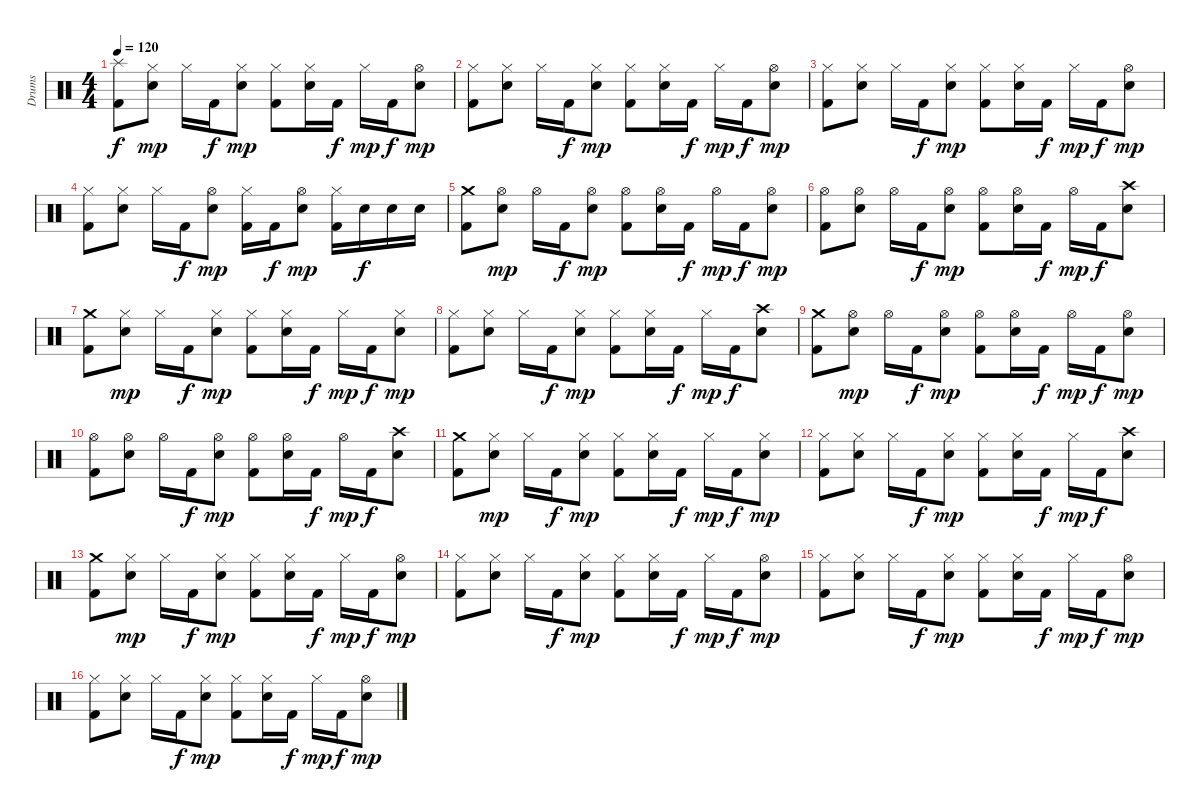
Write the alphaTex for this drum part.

\track ("Drums" "Drums") {instrument percussion}
\staff {score}
\articulation defaults
\ts (4 4)
\tempo 120
\clef neutral
\ks c
("Splash (hit)" "Kick (hit) 2").8{dy f} ("Hi-Hat (closed)" "Snare (hit) 2").8{dy mp} "Hi-Hat (closed)".16 "Kick (hit) 2".16{dy f} ("Hi-Hat (closed)" "Snare (hit) 2").8{dy mp} ("Hi-Hat (closed)" "Kick (hit) 2").8 ("Hi-Hat (closed)" "Snare (hit) 2").16 "Kick (hit) 2".16{dy f} "Hi-Hat (closed)".16{dy mp} "Kick (hit) 2".16{dy f} ("Hi-Hat (open)" "Snare (hit) 2").8{dy mp} |
("Hi-Hat (closed)" "Kick (hit) 2").8 ("Hi-Hat (closed)" "Snare (hit) 2").8 "Hi-Hat (closed)".16 "Kick (hit) 2".16{dy f} ("Hi-Hat (closed)" "Snare (hit) 2").8{dy mp} ("Hi-Hat (closed)" "Kick (hit) 2").8 ("Hi-Hat (closed)" "Snare (hit) 2").16 "Kick (hit) 2".16{dy f} "Hi-Hat (closed)".16{dy mp} "Kick (hit) 2".16{dy f} ("Hi-Hat (open)" "Snare (hit) 2").8{dy mp} |
("Hi-Hat (closed)" "Kick (hit) 2").8 ("Hi-Hat (closed)" "Snare (hit) 2").8 "Hi-Hat (closed)".16 "Kick (hit) 2".16{dy f} ("Hi-Hat (closed)" "Snare (hit) 2").8{dy mp} ("Hi-Hat (closed)" "Kick (hit) 2").8 ("Hi-Hat (closed)" "Snare (hit) 2").16 "Kick (hit) 2".16{dy f} "Hi-Hat (closed)".16{dy mp} "Kick (hit) 2".16{dy f} ("Hi-Hat (open)" "Snare (hit) 2").8{dy mp} |
("Hi-Hat (closed)" "Kick (hit) 2").8 ("Hi-Hat (closed)" "Snare (hit) 2").8 "Hi-Hat (closed)".16 "Kick (hit) 2".16{dy f} ("Hi-Hat (open)" "Snare (hit) 2").8{dy mp} ("Hi-Hat (closed)" "Kick (hit) 2").16 "Kick (hit) 2".16{dy f} ("Hi-Hat (open)" "Snare (hit) 2").8{dy mp} ("Hi-Hat (closed)" "Kick (hit) 2").16 "Snare (hit) 2".16{dy f} "Snare (hit) 2".16 "Snare (hit) 2".16 |
("Crash medium (hit)" "Kick (hit) 2").8 ("Hi-Hat (open)" "Snare (hit) 2").8{dy mp} "Hi-Hat (open)".16 "Kick (hit) 2".16{dy f} ("Hi-Hat (open)" "Snare (hit) 2").8{dy mp} ("Hi-Hat (open)" "Kick (hit) 2").8 ("Hi-Hat (open)" "Snare (hit) 2").16 "Kick (hit) 2".16{dy f} "Hi-Hat (open)".16{dy mp} "Kick (hit) 2".16{dy f} ("Hi-Hat (open)" "Snare (hit) 2").8{dy mp} |
("Hi-Hat (open)" "Kick (hit) 2").8 ("Hi-Hat (open)" "Snare (hit) 2").8 "Hi-Hat (open)".16 "Kick (hit) 2".16{dy f} ("Hi-Hat (open)" "Snare (hit) 2").8{dy mp} ("Hi-Hat (open)" "Kick (hit) 2").8 ("Hi-Hat (open)" "Snare (hit) 2").16 "Kick (hit) 2".16{dy f} "Hi-Hat (open)".16{dy mp} "Kick (hit) 2".16{dy f} ("Crash high (hit)" "Snare (hit) 2").8 |
("Crash medium (hit)" "Kick (hit) 2").8 ("Hi-Hat (closed)" "Snare (hit) 2").8{dy mp} "Hi-Hat (closed)".16 "Kick (hit) 2".16{dy f} ("Hi-Hat (closed)" "Snare (hit) 2").8{dy mp} ("Hi-Hat (closed)" "Kick (hit) 2").8 ("Hi-Hat (closed)" "Snare (hit) 2").16 "Kick (hit) 2".16{dy f} "Hi-Hat (closed)".16{dy mp} "Kick (hit) 2".16{dy f} ("Hi-Hat (closed)" "Snare (hit) 2").8{dy mp} |
("Hi-Hat (closed)" "Kick (hit) 2").8 ("Hi-Hat (closed)" "Snare (hit) 2").8 "Hi-Hat (closed)".16 "Kick (hit) 2".16{dy f} ("Hi-Hat (closed)" "Snare (hit) 2").8{dy mp} ("Hi-Hat (closed)" "Kick (hit) 2").8 ("Hi-Hat (closed)" "Snare (hit) 2").16 "Kick (hit) 2".16{dy f} "Hi-Hat (closed)".16{dy mp} "Kick (hit) 2".16{dy f} ("Crash high (hit)" "Snare (hit) 2").8 |
("Crash medium (hit)" "Kick (hit) 2").8 ("Hi-Hat (open)" "Snare (hit) 2").8{dy mp} "Hi-Hat (open)".16 "Kick (hit) 2".16{dy f} ("Hi-Hat (open)" "Snare (hit) 2").8{dy mp} ("Hi-Hat (open)" "Kick (hit) 2").8 ("Hi-Hat (open)" "Snare (hit) 2").16 "Kick (hit) 2".16{dy f} "Hi-Hat (open)".16{dy mp} "Kick (hit) 2".16{dy f} ("Hi-Hat (open)" "Snare (hit) 2").8{dy mp} |
("Hi-Hat (open)" "Kick (hit) 2").8 ("Hi-Hat (open)" "Snare (hit) 2").8 "Hi-Hat (open)".16 "Kick (hit) 2".16{dy f} ("Hi-Hat (open)" "Snare (hit) 2").8{dy mp} ("Hi-Hat (open)" "Kick (hit) 2").8 ("Hi-Hat (open)" "Snare (hit) 2").16 "Kick (hit) 2".16{dy f} "Hi-Hat (open)".16{dy mp} "Kick (hit) 2".16{dy f} ("Crash high (hit)" "Snare (hit) 2").8 |
("Crash medium (hit)" "Kick (hit) 2").8 ("Hi-Hat (closed)" "Snare (hit) 2").8{dy mp} "Hi-Hat (closed)".16 "Kick (hit) 2".16{dy f} ("Hi-Hat (closed)" "Snare (hit) 2").8{dy mp} ("Hi-Hat (closed)" "Kick (hit) 2").8 ("Hi-Hat (closed)" "Snare (hit) 2").16 "Kick (hit) 2".16{dy f} "Hi-Hat (closed)".16{dy mp} "Kick (hit) 2".16{dy f} ("Hi-Hat (closed)" "Snare (hit) 2").8{dy mp} |
("Hi-Hat (closed)" "Kick (hit) 2").8 ("Hi-Hat (closed)" "Snare (hit) 2").8 "Hi-Hat (closed)".16 "Kick (hit) 2".16{dy f} ("Hi-Hat (closed)" "Snare (hit) 2").8{dy mp} ("Hi-Hat (closed)" "Kick (hit) 2").8 ("Hi-Hat (closed)" "Snare (hit) 2").16 "Kick (hit) 2".16{dy f} "Hi-Hat (closed)".16{dy mp} "Kick (hit) 2".16{dy f} ("Crash high (hit)" "Snare (hit) 2").8 |
("Crash medium (hit)" "Kick (hit) 2").8 ("Hi-Hat (closed)" "Snare (hit) 2").8{dy mp} "Hi-Hat (closed)".16 "Kick (hit) 2".16{dy f} ("Hi-Hat (closed)" "Snare (hit) 2").8{dy mp} ("Hi-Hat (closed)" "Kick (hit) 2").8 ("Hi-Hat (closed)" "Snare (hit) 2").16 "Kick (hit) 2".16{dy f} "Hi-Hat (closed)".16{dy mp} "Kick (hit) 2".16{dy f} ("Hi-Hat (open)" "Snare (hit) 2").8{dy mp} |
("Hi-Hat (closed)" "Kick (hit) 2").8 ("Hi-Hat (closed)" "Snare (hit) 2").8 "Hi-Hat (closed)".16 "Kick (hit) 2".16{dy f} ("Hi-Hat (closed)" "Snare (hit) 2").8{dy mp} ("Hi-Hat (closed)" "Kick (hit) 2").8 ("Hi-Hat (closed)" "Snare (hit) 2").16 "Kick (hit) 2".16{dy f} "Hi-Hat (closed)".16{dy mp} "Kick (hit) 2".16{dy f} ("Hi-Hat (open)" "Snare (hit) 2").8{dy mp} |
("Hi-Hat (closed)" "Kick (hit) 2").8 ("Hi-Hat (closed)" "Snare (hit) 2").8 "Hi-Hat (closed)".16 "Kick (hit) 2".16{dy f} ("Hi-Hat (closed)" "Snare (hit) 2").8{dy mp} ("Hi-Hat (closed)" "Kick (hit) 2").8 ("Hi-Hat (closed)" "Snare (hit) 2").16 "Kick (hit) 2".16{dy f} "Hi-Hat (closed)".16{dy mp} "Kick (hit) 2".16{dy f} ("Hi-Hat (open)" "Snare (hit) 2").8{dy mp} |
("Hi-Hat (closed)" "Kick (hit) 2").8 ("Hi-Hat (closed)" "Snare (hit) 2").8 "Hi-Hat (closed)".16 "Kick (hit) 2".16{dy f} ("Hi-Hat (closed)" "Snare (hit) 2").8{dy mp} ("Hi-Hat (closed)" "Kick (hit) 2").8 ("Hi-Hat (closed)" "Snare (hit) 2").16 "Kick (hit) 2".16{dy f} "Hi-Hat (closed)".16{dy mp} "Kick (hit) 2".16{dy f} ("Hi-Hat (open)" "Snare (hit) 2").8{dy mp}
